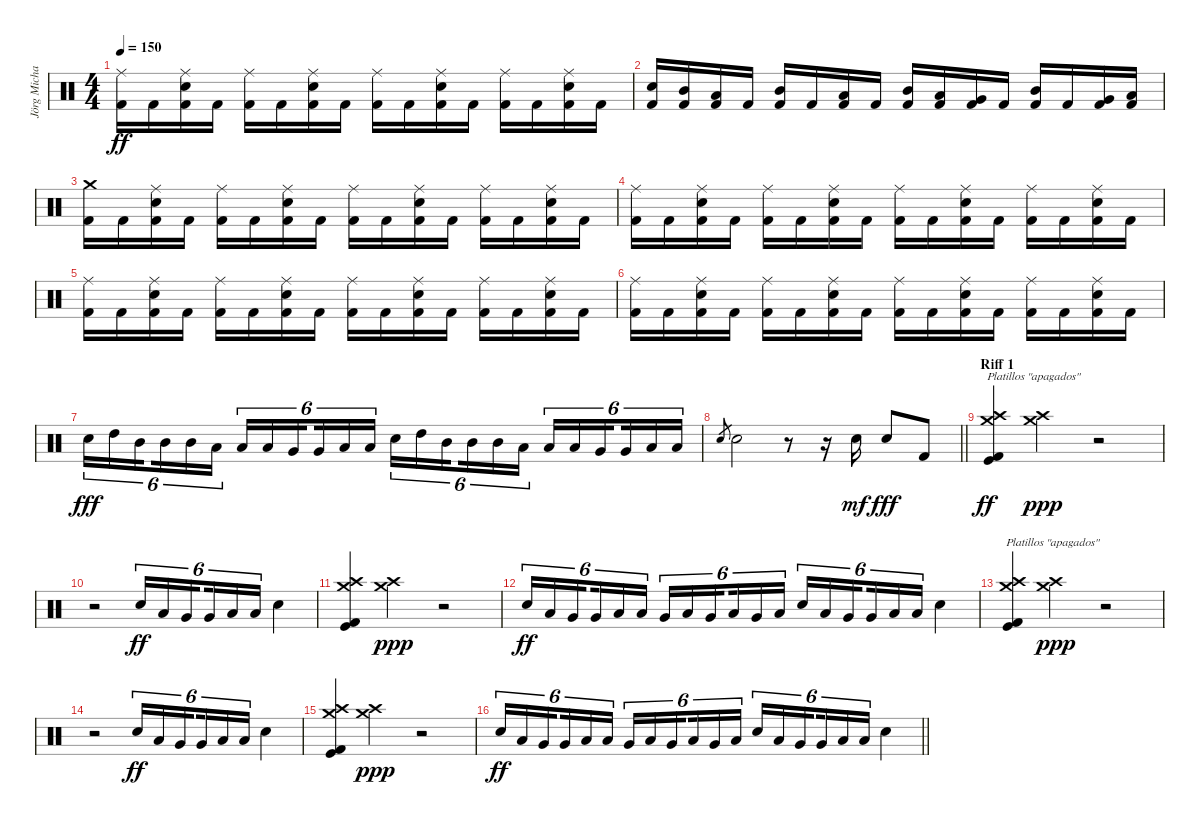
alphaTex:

\track ("Jörg Michael" "Jörg Micha") {instrument percussion}
\staff {score}
\articulation defaults
\ts (4 4)
\tempo 150
\clef neutral
\ks c
("Ride (middle)" "Kick (hit) 2").16{dy ff} "Kick (hit) 2".16 ("Ride (middle)" "Electric Snare (hit)" "Kick (hit) 2").16 "Kick (hit) 2".16 ("Ride (middle)" "Kick (hit) 2").16 "Kick (hit) 2".16 ("Ride (middle)" "Electric Snare (hit)" "Kick (hit) 2").16 "Kick (hit) 2".16 ("Ride (middle)" "Kick (hit) 2").16 "Kick (hit) 2".16 ("Ride (middle)" "Electric Snare (hit)" "Kick (hit) 2").16 "Kick (hit) 2".16 ("Ride (middle)" "Kick (hit) 2").16 "Kick (hit) 2".16 ("Ride (middle)" "Electric Snare (hit)" "Kick (hit) 2").16 "Kick (hit) 2".16 |
("Electric Snare (hit)" "Kick (hit) 2").16 ("Mid Tom (hit)" "Kick (hit) 2").16 ("Low Tom (hit)" "Kick (hit) 2").16 "Kick (hit) 2".16 ("Mid Tom (hit)" "Kick (hit) 2").16 "Kick (hit) 2".16 ("Low Tom (hit)" "Kick (hit) 2").16 "Kick (hit) 2".16 ("Mid Tom (hit)" "Kick (hit) 2").16 ("Low Tom (hit)" "Kick (hit) 2").16 ("Very Low Tom (hit)" "Kick (hit) 2").16 "Kick (hit) 2".16 ("Mid Tom (hit)" "Kick (hit) 2").16 "Kick (hit) 2".16 ("Very Low Tom (hit)" "Kick (hit) 2").16 ("Low Floor Tom (hit)" "Kick (hit) 2").16 |
("Crash medium (hit)" "Kick (hit) 2").16 "Kick (hit) 2".16 ("Ride (middle)" "Electric Snare (hit)" "Kick (hit) 2").16 "Kick (hit) 2".16 ("Ride (middle)" "Kick (hit) 2").16 "Kick (hit) 2".16 ("Ride (middle)" "Electric Snare (hit)" "Kick (hit) 2").16 "Kick (hit) 2".16 ("Ride (middle)" "Kick (hit) 2").16 "Kick (hit) 2".16 ("Ride (middle)" "Electric Snare (hit)" "Kick (hit) 2").16 "Kick (hit) 2".16 ("Ride (middle)" "Kick (hit) 2").16 "Kick (hit) 2".16 ("Ride (middle)" "Electric Snare (hit)" "Kick (hit) 2").16 "Kick (hit) 2".16 |
("Ride (middle)" "Kick (hit) 2").16 "Kick (hit) 2".16 ("Ride (middle)" "Electric Snare (hit)" "Kick (hit) 2").16 "Kick (hit) 2".16 ("Ride (middle)" "Kick (hit) 2").16 "Kick (hit) 2".16 ("Ride (middle)" "Electric Snare (hit)" "Kick (hit) 2").16 "Kick (hit) 2".16 ("Ride (middle)" "Kick (hit) 2").16 "Kick (hit) 2".16 ("Ride (middle)" "Electric Snare (hit)" "Kick (hit) 2").16 "Kick (hit) 2".16 ("Ride (middle)" "Kick (hit) 2").16 "Kick (hit) 2".16 ("Ride (middle)" "Electric Snare (hit)" "Kick (hit) 2").16 "Kick (hit) 2".16 |
("Ride (middle)" "Kick (hit) 2").16 "Kick (hit) 2".16 ("Ride (middle)" "Electric Snare (hit)" "Kick (hit) 2").16 "Kick (hit) 2".16 ("Ride (middle)" "Kick (hit) 2").16 "Kick (hit) 2".16 ("Ride (middle)" "Electric Snare (hit)" "Kick (hit) 2").16 "Kick (hit) 2".16 ("Ride (middle)" "Kick (hit) 2").16 "Kick (hit) 2".16 ("Ride (middle)" "Electric Snare (hit)" "Kick (hit) 2").16 "Kick (hit) 2".16 ("Ride (middle)" "Kick (hit) 2").16 "Kick (hit) 2".16 ("Ride (middle)" "Electric Snare (hit)" "Kick (hit) 2").16 "Kick (hit) 2".16 |
("Ride (middle)" "Kick (hit) 2").16 "Kick (hit) 2".16 ("Ride (middle)" "Electric Snare (hit)" "Kick (hit) 2").16 "Kick (hit) 2".16 ("Ride (middle)" "Kick (hit) 2").16 "Kick (hit) 2".16 ("Ride (middle)" "Electric Snare (hit)" "Kick (hit) 2").16 "Kick (hit) 2".16 ("Ride (middle)" "Kick (hit) 2").16 "Kick (hit) 2".16 ("Ride (middle)" "Electric Snare (hit)" "Kick (hit) 2").16 "Kick (hit) 2".16 ("Ride (middle)" "Kick (hit) 2").16 "Kick (hit) 2".16 ("Ride (middle)" "Electric Snare (hit)" "Kick (hit) 2").16 "Kick (hit) 2".16 |
"Electric Snare (hit)".16{tu (6 4) dy fff} "High Tom (hit)".16{tu (6 4)} "Mid Tom (hit)".16{tu (6 4) beam splitsecondary} "Mid Tom (hit)".16{tu (6 4)} "Mid Tom (hit)".16{tu (6 4)} "Low Tom (hit)".16{tu (6 4)} "Low Tom (hit)".16{tu (6 4)} "Low Tom (hit)".16{tu (6 4)} "Very Low Tom (hit)".16{tu (6 4) beam splitsecondary} "Very Low Tom (hit)".16{tu (6 4)} "Low Floor Tom (hit)".16{tu (6 4)} "Low Floor Tom (hit)".16{tu (6 4)} "Electric Snare (hit)".16{tu (6 4)} "High Tom (hit)".16{tu (6 4)} "Mid Tom (hit)".16{tu (6 4) beam splitsecondary} "Mid Tom (hit)".16{tu (6 4)} "Mid Tom (hit)".16{tu (6 4)} "Low Tom (hit)".16{tu (6 4)} "Low Tom (hit)".16{tu (6 4)} "Low Tom (hit)".16{tu (6 4)} "Very Low Tom (hit)".16{tu (6 4) beam splitsecondary} "Very Low Tom (hit)".16{tu (6 4)} "Low Floor Tom (hit)".16{tu (6 4)} "Low Floor Tom (hit)".16{tu (6 4)} |
\barLineRight lightlight "Electric Snare (hit)".8{gr} "Electric Snare (hit)".2
r.8 r.16 "Electric Snare (hit)".16{dy mf} "Electric Snare (hit)".8{dy fff} "Kick (hit) 2".8 |
\section ("" "Riff 1")
("Crash medium (hit)" "Crash high (hit)" "Kick (hit)" "Kick (hit) 2").4{txt "Platillos \"apagados\"" dy ff} ("Crash medium (hit)" "Crash high (hit)").4{dy ppp} r.2 |
r.2 "Electric Snare (hit)".16{tu (6 4) dy ff} "Low Tom (hit)".16{tu (6 4)} "Very Low Tom (hit)".16{tu (6 4) beam splitsecondary} "Very Low Tom (hit)".16{tu (6 4)} "Low Floor Tom (hit)".16{tu (6 4)} "Low Floor Tom (hit)".16{tu (6 4)} "Electric Snare (hit)".4 |
("Crash medium (hit)" "Crash high (hit)" "Kick (hit)" "Kick (hit) 2").4 ("Crash medium (hit)" "Crash high (hit)").4{dy ppp} r.2 |
"Electric Snare (hit)".16{tu (6 4) dy ff} "Low Tom (hit)".16{tu (6 4)} "Very Low Tom (hit)".16{tu (6 4) beam splitsecondary} "Very Low Tom (hit)".16{tu (6 4)} "Low Floor Tom (hit)".16{tu (6 4)} "Low Floor Tom (hit)".16{tu (6 4)} "Very Low Tom (hit)".16{tu (6 4)} "Low Floor Tom (hit)".16{tu (6 4)} "Very Low Tom (hit)".16{tu (6 4) beam splitsecondary} "Low Floor Tom (hit)".16{tu (6 4)} "Very Low Tom (hit)".16{tu (6 4)} "Low Floor Tom (hit)".16{tu (6 4)} "Electric Snare (hit)".16{tu (6 4)} "Low Tom (hit)".16{tu (6 4)} "Very Low Tom (hit)".16{tu (6 4) beam splitsecondary} "Very Low Tom (hit)".16{tu (6 4)} "Low Floor Tom (hit)".16{tu (6 4)} "Low Floor Tom (hit)".16{tu (6 4)} "Electric Snare (hit)".4 |
("Crash medium (hit)" "Crash high (hit)" "Kick (hit)" "Kick (hit) 2").4{txt "Platillos \"apagados\""} ("Crash medium (hit)" "Crash high (hit)").4{dy ppp} r.2 |
r.2 "Electric Snare (hit)".16{tu (6 4) dy ff} "Low Tom (hit)".16{tu (6 4)} "Very Low Tom (hit)".16{tu (6 4) beam splitsecondary} "Very Low Tom (hit)".16{tu (6 4)} "Low Floor Tom (hit)".16{tu (6 4)} "Low Floor Tom (hit)".16{tu (6 4)} "Electric Snare (hit)".4 |
("Crash medium (hit)" "Crash high (hit)" "Kick (hit)" "Kick (hit) 2").4 ("Crash medium (hit)" "Crash high (hit)").4{dy ppp} r.2 |
\barLineRight lightlight "Electric Snare (hit)".16{tu (6 4) dy ff} "Low Tom (hit)".16{tu (6 4)} "Very Low Tom (hit)".16{tu (6 4) beam splitsecondary} "Very Low Tom (hit)".16{tu (6 4)} "Low Floor Tom (hit)".16{tu (6 4)} "Low Floor Tom (hit)".16{tu (6 4)} "Very Low Tom (hit)".16{tu (6 4)} "Low Floor Tom (hit)".16{tu (6 4)} "Very Low Tom (hit)".16{tu (6 4) beam splitsecondary} "Low Floor Tom (hit)".16{tu (6 4)} "Very Low Tom (hit)".16{tu (6 4)} "Low Floor Tom (hit)".16{tu (6 4)} "Electric Snare (hit)".16{tu (6 4)} "Low Tom (hit)".16{tu (6 4)} "Very Low Tom (hit)".16{tu (6 4) beam splitsecondary} "Very Low Tom (hit)".16{tu (6 4)} "Low Floor Tom (hit)".16{tu (6 4)} "Low Floor Tom (hit)".16{tu (6 4)} "Electric Snare (hit)".4
